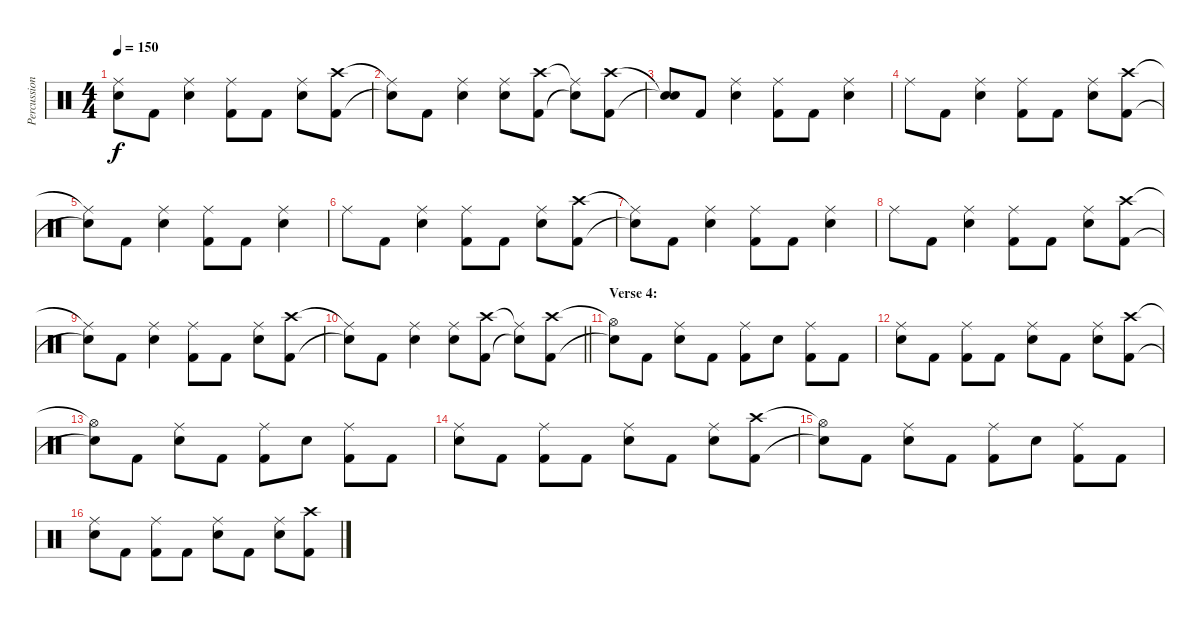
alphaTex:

\track ("Percussion" "Percussion") {instrument percussion}
\staff {score}
\articulation defaults
\ts (4 4)
\tempo 150
\clef neutral
\ks c
("Ride (middle)"{t} "Snare (hit)"{t}).8{dy f} "Kick (hit) 2".8 ("Ride (middle)" "Snare (hit) 2").4 ("Ride (middle)" "Kick (hit) 2").8 "Kick (hit) 2".8 ("Ride (middle)" "Snare (hit) 2").8 ("Crash high (hit)" "Kick (hit) 2").8 |
("Ride (middle)"{t} "Snare (hit)"{t}).8 "Kick (hit) 2".8 ("Ride (middle)" "Snare (hit) 2").4 ("Ride (middle)" "Snare (hit) 2").8 ("Crash high (hit)" "Kick (hit) 2").8 ("Ride (middle)"{t} "Snare (hit)"{t}).8 ("Crash high (hit)" "Kick (hit) 2").8 |
("Snare (hit)"{t} "Snare (hit)"{t}).8 "Kick (hit) 2".8 ("Ride (middle)" "Snare (hit) 2").4 ("Ride (middle)" "Kick (hit) 2").8 "Kick (hit) 2".8 ("Ride (middle)" "Snare (hit) 2").4 |
"Ride (middle)".8 "Kick (hit) 2".8 ("Ride (middle)" "Snare (hit) 2").4 ("Ride (middle)" "Kick (hit) 2").8 "Kick (hit) 2".8 ("Ride (middle)" "Snare (hit) 2").8 ("Crash high (hit)" "Kick (hit) 2").8 |
("Ride (middle)"{t} "Snare (hit)"{t}).8 "Kick (hit) 2".8 ("Ride (middle)" "Snare (hit) 2").4 ("Ride (middle)" "Kick (hit) 2").8 "Kick (hit) 2".8 ("Ride (middle)" "Snare (hit) 2").4 |
"Ride (middle)".8 "Kick (hit) 2".8 ("Ride (middle)" "Snare (hit) 2").4 ("Ride (middle)" "Kick (hit) 2").8 "Kick (hit) 2".8 ("Ride (middle)" "Snare (hit) 2").8 ("Crash high (hit)" "Kick (hit) 2").8 |
("Ride (middle)"{t} "Snare (hit)"{t}).8 "Kick (hit) 2".8 ("Ride (middle)" "Snare (hit) 2").4 ("Ride (middle)" "Kick (hit) 2").8 "Kick (hit) 2".8 ("Ride (middle)" "Snare (hit) 2").4 |
"Ride (middle)".8 "Kick (hit) 2".8 ("Ride (middle)" "Snare (hit) 2").4 ("Ride (middle)" "Kick (hit) 2").8 "Kick (hit) 2".8 ("Ride (middle)" "Snare (hit) 2").8 ("Crash high (hit)" "Kick (hit) 2").8 |
("Ride (middle)"{t} "Snare (hit)"{t}).8 "Kick (hit) 2".8 ("Ride (middle)" "Snare (hit) 2").4 ("Ride (middle)" "Kick (hit) 2").8 "Kick (hit) 2".8 ("Ride (middle)" "Snare (hit) 2").8 ("Crash high (hit)" "Kick (hit) 2").8 |
\barLineRight lightlight
("Ride (middle)"{t} "Snare (hit)"{t}).8 "Kick (hit) 2".8 ("Ride (middle)" "Snare (hit) 2").4 ("Ride (middle)" "Snare (hit) 2").8 ("Crash high (hit)" "Kick (hit) 2").8 ("Ride (middle)"{t} "Snare (hit)"{t}).8 ("Crash high (hit)" "Kick (hit) 2").8 |
\section ("" "Verse 4:")
("Hi-Hat (open)"{t} "Snare (hit)"{t}).8 "Kick (hit) 2".8 ("Ride (middle)" "Snare (hit) 2").8 "Kick (hit) 2".8 ("Ride (middle)" "Kick (hit) 2").8 "Snare (hit) 2".8 ("Ride (middle)" "Kick (hit) 2").8 "Kick (hit) 2".8 |
("Ride (middle)" "Snare (hit) 2").8 "Kick (hit) 2".8 ("Ride (middle)" "Kick (hit) 2").8 "Kick (hit) 2".8 ("Ride (middle)" "Snare (hit) 2").8 "Kick (hit) 2".8 ("Ride (middle)" "Snare (hit) 2").8 ("Crash high (hit)" "Kick (hit) 2").8 |
("Hi-Hat (open)"{t} "Snare (hit)"{t}).8 "Kick (hit) 2".8 ("Ride (middle)" "Snare (hit) 2").8 "Kick (hit) 2".8 ("Ride (middle)" "Kick (hit) 2").8 "Snare (hit) 2".8 ("Ride (middle)" "Kick (hit) 2").8 "Kick (hit) 2".8 |
("Ride (middle)" "Snare (hit) 2").8 "Kick (hit) 2".8 ("Ride (middle)" "Kick (hit) 2").8 "Kick (hit) 2".8 ("Ride (middle)" "Snare (hit) 2").8 "Kick (hit) 2".8 ("Ride (middle)" "Snare (hit) 2").8 ("Crash high (hit)" "Kick (hit) 2").8 |
("Hi-Hat (open)"{t} "Snare (hit)"{t}).8 "Kick (hit) 2".8 ("Ride (middle)" "Snare (hit) 2").8 "Kick (hit) 2".8 ("Ride (middle)" "Kick (hit) 2").8 "Snare (hit) 2".8 ("Ride (middle)" "Kick (hit) 2").8 "Kick (hit) 2".8 |
("Ride (middle)" "Snare (hit) 2").8 "Kick (hit) 2".8 ("Ride (middle)" "Kick (hit) 2").8 "Kick (hit) 2".8 ("Ride (middle)" "Snare (hit) 2").8 "Kick (hit) 2".8 ("Ride (middle)" "Snare (hit) 2").8 ("Crash high (hit)" "Kick (hit) 2").8
